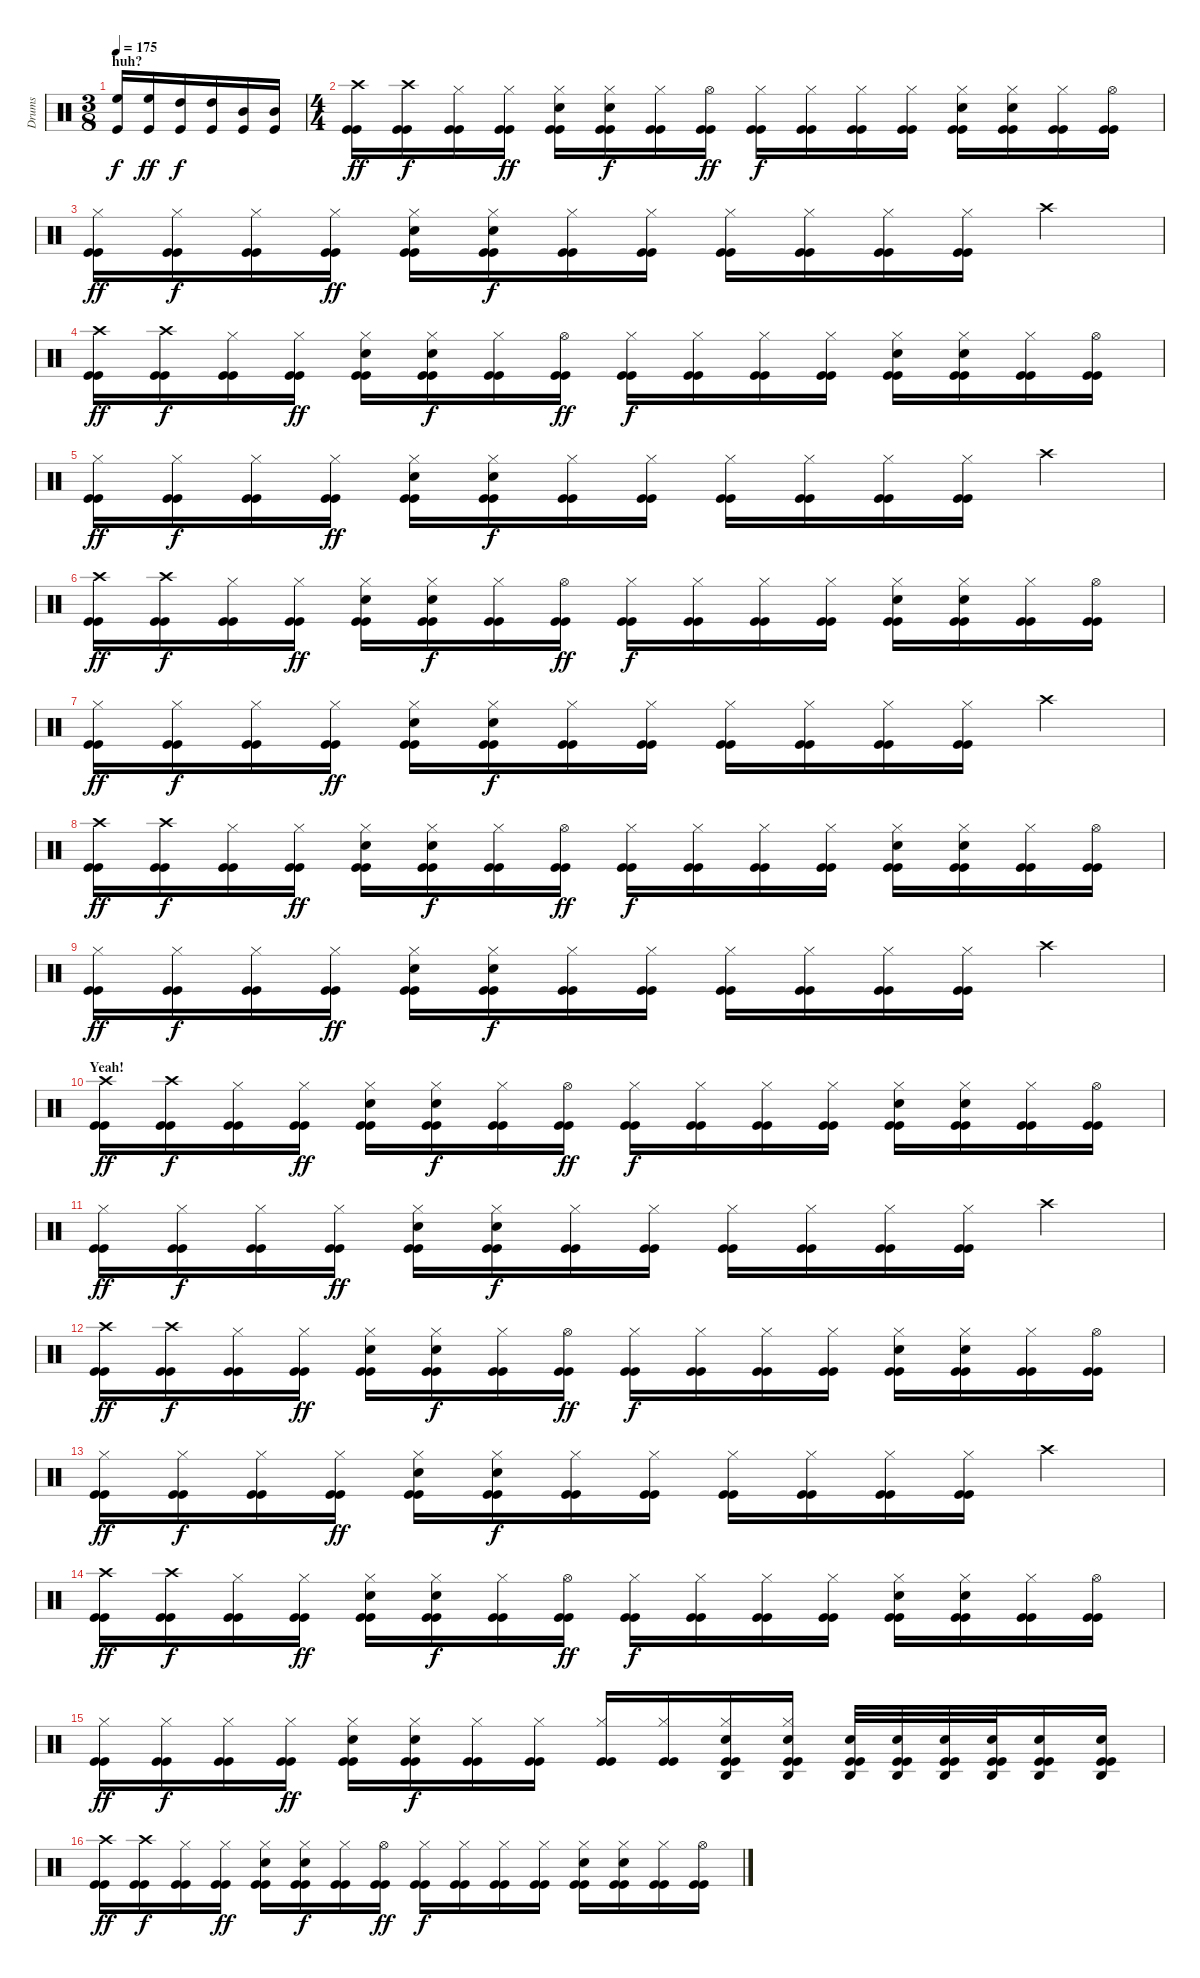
\track ("Drums" "Drums") {instrument percussion}
\staff {score}
\articulation defaults
\ts (3 8)
\section ("" "huh?")
\tempo 175
\clef neutral
\ks c
("High Floor Tom (hit)" "Kick (hit)").16{dy f volume 16} ("High Floor Tom (hit)" "Kick (hit)").16{dy ff} ("High Tom (hit)" "Kick (hit)").16{dy f} ("High Tom (hit)" "Kick (hit)").16 ("Mid Tom (hit)" "Kick (hit)").16 ("Mid Tom (hit)" "Kick (hit)").16 |
\ts (4 4)
("Crash high (hit)" "Kick (hit)" "Kick (hit)").16{dy ff volume 10} ("Crash high (hit)" "Kick (hit)" "Kick (hit)").16{dy f} ("Hi-Hat (closed)" "Kick (hit)" "Kick (hit)").16 ("Hi-Hat (closed)" "Kick (hit)" "Kick (hit)").16{dy ff} ("Electric Snare (hit)" "Hi-Hat (closed)" "Kick (hit)" "Kick (hit)").16 ("Electric Snare (hit)" "Hi-Hat (closed)" "Kick (hit)" "Kick (hit)").16{dy f} ("Hi-Hat (closed)" "Kick (hit)" "Kick (hit)").16 ("Hi-Hat (open)" "Kick (hit)" "Kick (hit)").16{dy ff} ("Hi-Hat (closed)" "Kick (hit)" "Kick (hit)").16{dy f} ("Hi-Hat (closed)" "Kick (hit)" "Kick (hit)").16 ("Hi-Hat (closed)" "Kick (hit)" "Kick (hit)").16 ("Hi-Hat (closed)" "Kick (hit)" "Kick (hit)").16 ("Electric Snare (hit)" "Hi-Hat (closed)" "Kick (hit)" "Kick (hit)").16 ("Electric Snare (hit)" "Hi-Hat (closed)" "Kick (hit)" "Kick (hit)").16 ("Hi-Hat (closed)" "Kick (hit)" "Kick (hit)").16 ("Hi-Hat (open)" "Kick (hit)" "Kick (hit)").16 |
("Hi-Hat (closed)" "Kick (hit)" "Kick (hit)").16{dy ff} ("Hi-Hat (closed)" "Kick (hit)" "Kick (hit)").16{dy f} ("Hi-Hat (closed)" "Kick (hit)" "Kick (hit)").16 ("Hi-Hat (closed)" "Kick (hit)" "Kick (hit)").16{dy ff} ("Electric Snare (hit)" "Hi-Hat (closed)" "Kick (hit)" "Kick (hit)").16 ("Electric Snare (hit)" "Hi-Hat (closed)" "Kick (hit)" "Kick (hit)").16{dy f} ("Hi-Hat (closed)" "Kick (hit)" "Kick (hit)").16 ("Hi-Hat (closed)" "Kick (hit)" "Kick (hit)").16 ("Hi-Hat (closed)" "Kick (hit)" "Kick (hit)").16 ("Hi-Hat (closed)" "Kick (hit)" "Kick (hit)").16 ("Hi-Hat (closed)" "Kick (hit)" "Kick (hit)").16 ("Hi-Hat (closed)" "Kick (hit)" "Kick (hit)").16 "Crash high (hit)".4 |
("Crash high (hit)" "Kick (hit)" "Kick (hit)").16{dy ff} ("Crash high (hit)" "Kick (hit)" "Kick (hit)").16{dy f} ("Hi-Hat (closed)" "Kick (hit)" "Kick (hit)").16 ("Hi-Hat (closed)" "Kick (hit)" "Kick (hit)").16{dy ff} ("Electric Snare (hit)" "Hi-Hat (closed)" "Kick (hit)" "Kick (hit)").16 ("Electric Snare (hit)" "Hi-Hat (closed)" "Kick (hit)" "Kick (hit)").16{dy f} ("Hi-Hat (closed)" "Kick (hit)" "Kick (hit)").16 ("Hi-Hat (open)" "Kick (hit)" "Kick (hit)").16{dy ff} ("Hi-Hat (closed)" "Kick (hit)" "Kick (hit)").16{dy f} ("Hi-Hat (closed)" "Kick (hit)" "Kick (hit)").16 ("Hi-Hat (closed)" "Kick (hit)" "Kick (hit)").16 ("Hi-Hat (closed)" "Kick (hit)" "Kick (hit)").16 ("Electric Snare (hit)" "Hi-Hat (closed)" "Kick (hit)" "Kick (hit)").16 ("Electric Snare (hit)" "Hi-Hat (closed)" "Kick (hit)" "Kick (hit)").16 ("Hi-Hat (closed)" "Kick (hit)" "Kick (hit)").16 ("Hi-Hat (open)" "Kick (hit)" "Kick (hit)").16 |
("Hi-Hat (closed)" "Kick (hit)" "Kick (hit)").16{dy ff} ("Hi-Hat (closed)" "Kick (hit)" "Kick (hit)").16{dy f} ("Hi-Hat (closed)" "Kick (hit)" "Kick (hit)").16 ("Hi-Hat (closed)" "Kick (hit)" "Kick (hit)").16{dy ff} ("Electric Snare (hit)" "Hi-Hat (closed)" "Kick (hit)" "Kick (hit)").16 ("Electric Snare (hit)" "Hi-Hat (closed)" "Kick (hit)" "Kick (hit)").16{dy f} ("Hi-Hat (closed)" "Kick (hit)" "Kick (hit)").16 ("Hi-Hat (closed)" "Kick (hit)" "Kick (hit)").16 ("Hi-Hat (closed)" "Kick (hit)" "Kick (hit)").16 ("Hi-Hat (closed)" "Kick (hit)" "Kick (hit)").16 ("Hi-Hat (closed)" "Kick (hit)" "Kick (hit)").16 ("Hi-Hat (closed)" "Kick (hit)" "Kick (hit)").16 "Crash high (hit)".4 |
("Crash high (hit)" "Kick (hit)" "Kick (hit)").16{dy ff} ("Crash high (hit)" "Kick (hit)" "Kick (hit)").16{dy f} ("Hi-Hat (closed)" "Kick (hit)" "Kick (hit)").16 ("Hi-Hat (closed)" "Kick (hit)" "Kick (hit)").16{dy ff} ("Electric Snare (hit)" "Hi-Hat (closed)" "Kick (hit)" "Kick (hit)").16 ("Electric Snare (hit)" "Hi-Hat (closed)" "Kick (hit)" "Kick (hit)").16{dy f} ("Hi-Hat (closed)" "Kick (hit)" "Kick (hit)").16 ("Hi-Hat (open)" "Kick (hit)" "Kick (hit)").16{dy ff} ("Hi-Hat (closed)" "Kick (hit)" "Kick (hit)").16{dy f} ("Hi-Hat (closed)" "Kick (hit)" "Kick (hit)").16 ("Hi-Hat (closed)" "Kick (hit)" "Kick (hit)").16 ("Hi-Hat (closed)" "Kick (hit)" "Kick (hit)").16 ("Electric Snare (hit)" "Hi-Hat (closed)" "Kick (hit)" "Kick (hit)").16 ("Electric Snare (hit)" "Hi-Hat (closed)" "Kick (hit)" "Kick (hit)").16 ("Hi-Hat (closed)" "Kick (hit)" "Kick (hit)").16 ("Hi-Hat (open)" "Kick (hit)" "Kick (hit)").16 |
("Hi-Hat (closed)" "Kick (hit)" "Kick (hit)").16{dy ff} ("Hi-Hat (closed)" "Kick (hit)" "Kick (hit)").16{dy f} ("Hi-Hat (closed)" "Kick (hit)" "Kick (hit)").16 ("Hi-Hat (closed)" "Kick (hit)" "Kick (hit)").16{dy ff} ("Electric Snare (hit)" "Hi-Hat (closed)" "Kick (hit)" "Kick (hit)").16 ("Electric Snare (hit)" "Hi-Hat (closed)" "Kick (hit)" "Kick (hit)").16{dy f} ("Hi-Hat (closed)" "Kick (hit)" "Kick (hit)").16 ("Hi-Hat (closed)" "Kick (hit)" "Kick (hit)").16 ("Hi-Hat (closed)" "Kick (hit)" "Kick (hit)").16 ("Hi-Hat (closed)" "Kick (hit)" "Kick (hit)").16 ("Hi-Hat (closed)" "Kick (hit)" "Kick (hit)").16 ("Hi-Hat (closed)" "Kick (hit)" "Kick (hit)").16 "Crash high (hit)".4 |
("Crash high (hit)" "Kick (hit)" "Kick (hit)").16{dy ff} ("Crash high (hit)" "Kick (hit)" "Kick (hit)").16{dy f} ("Hi-Hat (closed)" "Kick (hit)" "Kick (hit)").16 ("Hi-Hat (closed)" "Kick (hit)" "Kick (hit)").16{dy ff} ("Electric Snare (hit)" "Hi-Hat (closed)" "Kick (hit)" "Kick (hit)").16 ("Electric Snare (hit)" "Hi-Hat (closed)" "Kick (hit)" "Kick (hit)").16{dy f} ("Hi-Hat (closed)" "Kick (hit)" "Kick (hit)").16 ("Hi-Hat (open)" "Kick (hit)" "Kick (hit)").16{dy ff} ("Hi-Hat (closed)" "Kick (hit)" "Kick (hit)").16{dy f} ("Hi-Hat (closed)" "Kick (hit)" "Kick (hit)").16 ("Hi-Hat (closed)" "Kick (hit)" "Kick (hit)").16 ("Hi-Hat (closed)" "Kick (hit)" "Kick (hit)").16 ("Electric Snare (hit)" "Hi-Hat (closed)" "Kick (hit)" "Kick (hit)").16 ("Electric Snare (hit)" "Hi-Hat (closed)" "Kick (hit)" "Kick (hit)").16 ("Hi-Hat (closed)" "Kick (hit)" "Kick (hit)").16 ("Hi-Hat (open)" "Kick (hit)" "Kick (hit)").16 |
("Hi-Hat (closed)" "Kick (hit)" "Kick (hit)").16{dy ff} ("Hi-Hat (closed)" "Kick (hit)" "Kick (hit)").16{dy f} ("Hi-Hat (closed)" "Kick (hit)" "Kick (hit)").16 ("Hi-Hat (closed)" "Kick (hit)" "Kick (hit)").16{dy ff} ("Electric Snare (hit)" "Hi-Hat (closed)" "Kick (hit)" "Kick (hit)").16 ("Electric Snare (hit)" "Hi-Hat (closed)" "Kick (hit)" "Kick (hit)").16{dy f} ("Hi-Hat (closed)" "Kick (hit)" "Kick (hit)").16 ("Hi-Hat (closed)" "Kick (hit)" "Kick (hit)").16 ("Hi-Hat (closed)" "Kick (hit)" "Kick (hit)").16 ("Hi-Hat (closed)" "Kick (hit)" "Kick (hit)").16 ("Hi-Hat (closed)" "Kick (hit)" "Kick (hit)").16 ("Hi-Hat (closed)" "Kick (hit)" "Kick (hit)").16 "Crash high (hit)".4 |
\section ("" "Yeah!")
("Crash high (hit)" "Kick (hit)" "Kick (hit)").16{dy ff} ("Crash high (hit)" "Kick (hit)" "Kick (hit)").16{dy f} ("Hi-Hat (closed)" "Kick (hit)" "Kick (hit)").16 ("Hi-Hat (closed)" "Kick (hit)" "Kick (hit)").16{dy ff} ("Electric Snare (hit)" "Hi-Hat (closed)" "Kick (hit)" "Kick (hit)").16 ("Electric Snare (hit)" "Hi-Hat (closed)" "Kick (hit)" "Kick (hit)").16{dy f} ("Hi-Hat (closed)" "Kick (hit)" "Kick (hit)").16 ("Hi-Hat (open)" "Kick (hit)" "Kick (hit)").16{dy ff} ("Hi-Hat (closed)" "Kick (hit)" "Kick (hit)").16{dy f} ("Hi-Hat (closed)" "Kick (hit)" "Kick (hit)").16 ("Hi-Hat (closed)" "Kick (hit)" "Kick (hit)").16 ("Hi-Hat (closed)" "Kick (hit)" "Kick (hit)").16 ("Electric Snare (hit)" "Hi-Hat (closed)" "Kick (hit)" "Kick (hit)").16 ("Electric Snare (hit)" "Hi-Hat (closed)" "Kick (hit)" "Kick (hit)").16 ("Hi-Hat (closed)" "Kick (hit)" "Kick (hit)").16 ("Hi-Hat (open)" "Kick (hit)" "Kick (hit)").16 |
("Hi-Hat (closed)" "Kick (hit)" "Kick (hit)").16{dy ff} ("Hi-Hat (closed)" "Kick (hit)" "Kick (hit)").16{dy f} ("Hi-Hat (closed)" "Kick (hit)" "Kick (hit)").16 ("Hi-Hat (closed)" "Kick (hit)" "Kick (hit)").16{dy ff} ("Electric Snare (hit)" "Hi-Hat (closed)" "Kick (hit)" "Kick (hit)").16 ("Electric Snare (hit)" "Hi-Hat (closed)" "Kick (hit)" "Kick (hit)").16{dy f} ("Hi-Hat (closed)" "Kick (hit)" "Kick (hit)").16 ("Hi-Hat (closed)" "Kick (hit)" "Kick (hit)").16 ("Hi-Hat (closed)" "Kick (hit)" "Kick (hit)").16 ("Hi-Hat (closed)" "Kick (hit)" "Kick (hit)").16 ("Hi-Hat (closed)" "Kick (hit)" "Kick (hit)").16 ("Hi-Hat (closed)" "Kick (hit)" "Kick (hit)").16 "Crash high (hit)".4 |
("Crash high (hit)" "Kick (hit)" "Kick (hit)").16{dy ff} ("Crash high (hit)" "Kick (hit)" "Kick (hit)").16{dy f} ("Hi-Hat (closed)" "Kick (hit)" "Kick (hit)").16 ("Hi-Hat (closed)" "Kick (hit)" "Kick (hit)").16{dy ff} ("Electric Snare (hit)" "Hi-Hat (closed)" "Kick (hit)" "Kick (hit)").16 ("Electric Snare (hit)" "Hi-Hat (closed)" "Kick (hit)" "Kick (hit)").16{dy f} ("Hi-Hat (closed)" "Kick (hit)" "Kick (hit)").16 ("Hi-Hat (open)" "Kick (hit)" "Kick (hit)").16{dy ff} ("Hi-Hat (closed)" "Kick (hit)" "Kick (hit)").16{dy f} ("Hi-Hat (closed)" "Kick (hit)" "Kick (hit)").16 ("Hi-Hat (closed)" "Kick (hit)" "Kick (hit)").16 ("Hi-Hat (closed)" "Kick (hit)" "Kick (hit)").16 ("Electric Snare (hit)" "Hi-Hat (closed)" "Kick (hit)" "Kick (hit)").16 ("Electric Snare (hit)" "Hi-Hat (closed)" "Kick (hit)" "Kick (hit)").16 ("Hi-Hat (closed)" "Kick (hit)" "Kick (hit)").16 ("Hi-Hat (open)" "Kick (hit)" "Kick (hit)").16 |
("Hi-Hat (closed)" "Kick (hit)" "Kick (hit)").16{dy ff} ("Hi-Hat (closed)" "Kick (hit)" "Kick (hit)").16{dy f} ("Hi-Hat (closed)" "Kick (hit)" "Kick (hit)").16 ("Hi-Hat (closed)" "Kick (hit)" "Kick (hit)").16{dy ff} ("Electric Snare (hit)" "Hi-Hat (closed)" "Kick (hit)" "Kick (hit)").16 ("Electric Snare (hit)" "Hi-Hat (closed)" "Kick (hit)" "Kick (hit)").16{dy f} ("Hi-Hat (closed)" "Kick (hit)" "Kick (hit)").16 ("Hi-Hat (closed)" "Kick (hit)" "Kick (hit)").16 ("Hi-Hat (closed)" "Kick (hit)" "Kick (hit)").16 ("Hi-Hat (closed)" "Kick (hit)" "Kick (hit)").16 ("Hi-Hat (closed)" "Kick (hit)" "Kick (hit)").16 ("Hi-Hat (closed)" "Kick (hit)" "Kick (hit)").16 "Crash high (hit)".4 |
("Crash high (hit)" "Kick (hit)" "Kick (hit)").16{dy ff} ("Crash high (hit)" "Kick (hit)" "Kick (hit)").16{dy f} ("Hi-Hat (closed)" "Kick (hit)" "Kick (hit)").16 ("Hi-Hat (closed)" "Kick (hit)" "Kick (hit)").16{dy ff} ("Electric Snare (hit)" "Hi-Hat (closed)" "Kick (hit)" "Kick (hit)").16 ("Electric Snare (hit)" "Hi-Hat (closed)" "Kick (hit)" "Kick (hit)").16{dy f} ("Hi-Hat (closed)" "Kick (hit)" "Kick (hit)").16 ("Hi-Hat (open)" "Kick (hit)" "Kick (hit)").16{dy ff} ("Hi-Hat (closed)" "Kick (hit)" "Kick (hit)").16{dy f} ("Hi-Hat (closed)" "Kick (hit)" "Kick (hit)").16 ("Hi-Hat (closed)" "Kick (hit)" "Kick (hit)").16 ("Hi-Hat (closed)" "Kick (hit)" "Kick (hit)").16 ("Electric Snare (hit)" "Hi-Hat (closed)" "Kick (hit)" "Kick (hit)").16 ("Electric Snare (hit)" "Hi-Hat (closed)" "Kick (hit)" "Kick (hit)").16 ("Hi-Hat (closed)" "Kick (hit)" "Kick (hit)").16 ("Hi-Hat (open)" "Kick (hit)" "Kick (hit)").16 |
("Hi-Hat (closed)" "Kick (hit)" "Kick (hit)").16{dy ff} ("Hi-Hat (closed)" "Kick (hit)" "Kick (hit)").16{dy f} ("Hi-Hat (closed)" "Kick (hit)" "Kick (hit)").16 ("Hi-Hat (closed)" "Kick (hit)" "Kick (hit)").16{dy ff} ("Electric Snare (hit)" "Hi-Hat (closed)" "Kick (hit)" "Kick (hit)").16 ("Electric Snare (hit)" "Hi-Hat (closed)" "Kick (hit)" "Kick (hit)").16{dy f} ("Hi-Hat (closed)" "Kick (hit)" "Kick (hit)").16 ("Hi-Hat (closed)" "Kick (hit)" "Kick (hit)").16 ("Hi-Hat (closed)" "Kick (hit)" "Kick (hit)").16 ("Hi-Hat (closed)" "Kick (hit)" "Kick (hit)").16 ("Agogo high (hit)" "Electric Snare (hit)" "Hi-Hat (closed)" "Kick (hit)" "Kick (hit)").16 ("Agogo high (hit)" "Electric Snare (hit)" "Hi-Hat (closed)" "Kick (hit)" "Kick (hit)").16 ("Agogo high (hit)" "Electric Snare (hit)" "Kick (hit)" "Kick (hit)").32 ("Agogo high (hit)" "Electric Snare (hit)" "Kick (hit)" "Kick (hit)").32 ("Agogo high (hit)" "Electric Snare (hit)" "Kick (hit)" "Kick (hit)").32 ("Agogo high (hit)" "Electric Snare (hit)" "Kick (hit)" "Kick (hit)").32 ("Agogo high (hit)" "Electric Snare (hit)" "Kick (hit)" "Kick (hit)").16 ("Agogo high (hit)" "Electric Snare (hit)" "Kick (hit)" "Kick (hit)").16 |
("Crash high (hit)" "Kick (hit)" "Kick (hit)").16{dy ff} ("Crash high (hit)" "Kick (hit)" "Kick (hit)").16{dy f} ("Hi-Hat (closed)" "Kick (hit)" "Kick (hit)").16 ("Hi-Hat (closed)" "Kick (hit)" "Kick (hit)").16{dy ff} ("Electric Snare (hit)" "Hi-Hat (closed)" "Kick (hit)" "Kick (hit)").16 ("Electric Snare (hit)" "Hi-Hat (closed)" "Kick (hit)" "Kick (hit)").16{dy f} ("Hi-Hat (closed)" "Kick (hit)" "Kick (hit)").16 ("Hi-Hat (open)" "Kick (hit)" "Kick (hit)").16{dy ff} ("Hi-Hat (closed)" "Kick (hit)" "Kick (hit)").16{dy f} ("Hi-Hat (closed)" "Kick (hit)" "Kick (hit)").16 ("Hi-Hat (closed)" "Kick (hit)" "Kick (hit)").16 ("Hi-Hat (closed)" "Kick (hit)" "Kick (hit)").16 ("Electric Snare (hit)" "Hi-Hat (closed)" "Kick (hit)" "Kick (hit)").16 ("Electric Snare (hit)" "Hi-Hat (closed)" "Kick (hit)" "Kick (hit)").16 ("Hi-Hat (closed)" "Kick (hit)" "Kick (hit)").16 ("Hi-Hat (open)" "Kick (hit)" "Kick (hit)").16
